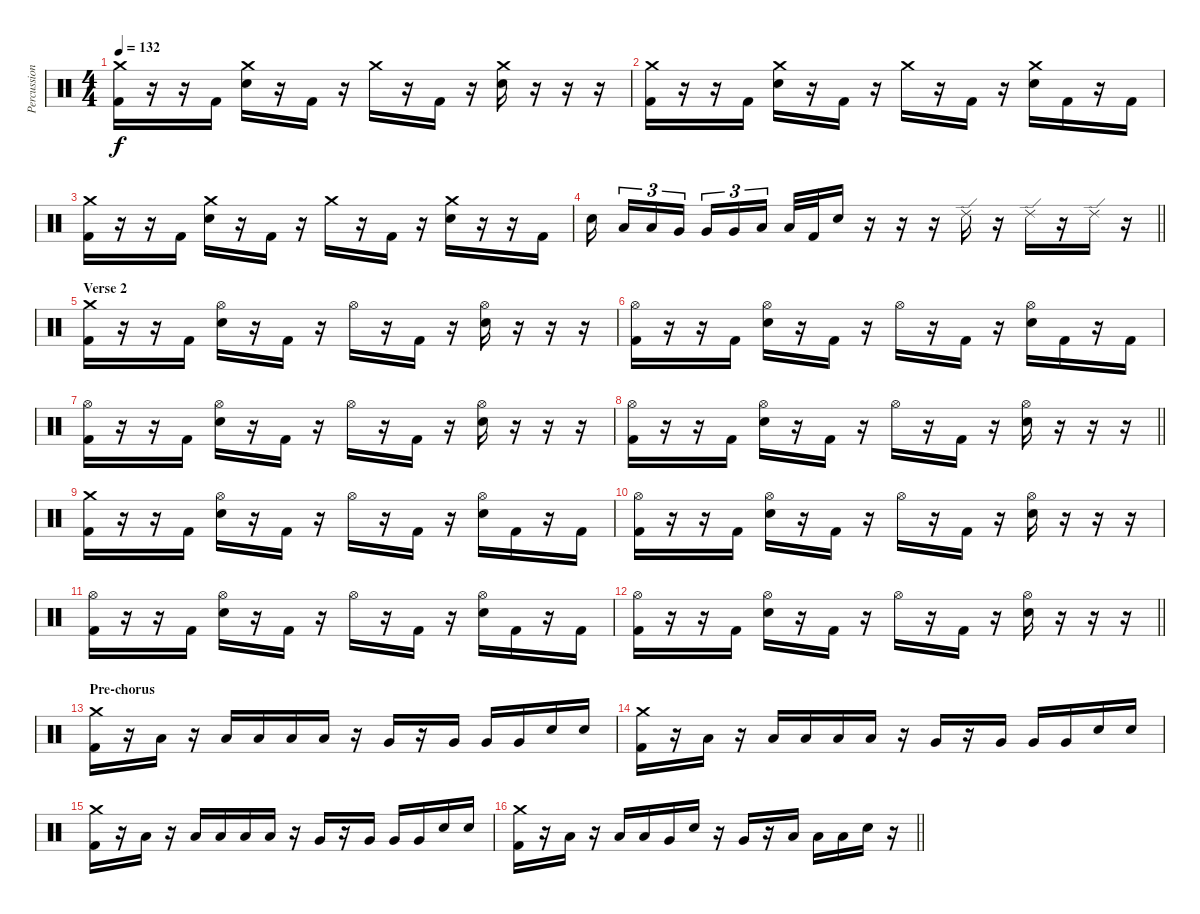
\track ("Percussion" "Percussion") {instrument percussion}
\staff {score}
\articulation defaults
\ts (4 4)
\tempo 132
\clef neutral
\ks c
("Crash medium (hit)" "Kick (hit) 2").16{dy f} r.16 r.16 "Kick (hit) 2".16 ("Crash medium (hit)" "Electric Snare (hit)").16 r.16 "Kick (hit) 2".16 r.16 "Crash medium (hit)".16 r.16 "Kick (hit) 2".16 r.16 ("Crash medium (hit)" "Electric Snare (hit)").16 r.16 r.16 r.16 |
("Crash medium (hit)" "Kick (hit) 2").16 r.16 r.16 "Kick (hit) 2".16 ("Crash medium (hit)" "Electric Snare (hit)").16 r.16 "Kick (hit) 2".16 r.16 "Crash medium (hit)".16 r.16 "Kick (hit) 2".16 r.16 ("Crash medium (hit)" "Electric Snare (hit)").16 "Kick (hit) 2".16 r.16 "Kick (hit) 2".16 |
("Crash medium (hit)" "Kick (hit) 2").16 r.16 r.16 "Kick (hit) 2".16 ("Crash medium (hit)" "Electric Snare (hit)").16 r.16 "Kick (hit) 2".16 r.16 "Crash medium (hit)".16 r.16 "Kick (hit) 2".16 r.16 ("Crash medium (hit)" "Electric Snare (hit)").16 r.16 r.16 "Kick (hit) 2".16 |
\barLineRight lightlight "Electric Snare (hit)".16{beam splitsecondary} "Low Tom (hit)".16{tu (3 2)} "Low Tom (hit)".16{tu (3 2)} "Very Low Tom (hit)".16{tu (3 2) beam splitsecondary} "Very Low Tom (hit)".16{tu (3 2)} "Very Low Tom (hit)".16{tu (3 2)} "Low Tom (hit)".16{tu (3 2) beam splitsecondary} "Low Tom (hit)".32 "Kick (hit) 2".32 "Electric Snare (hit)".16
r.16 r.16 r.16 "Ride (edge) 2".16 r.16 "Ride (edge) 2".16 r.16 "Ride (edge) 2".16 r.16 |
\section ("" "Verse 2")
("Crash medium (hit)" "Kick (hit) 2").16 r.16 r.16 "Kick (hit) 2".16 ("Hi-Hat (open)" "Electric Snare (hit)").16 r.16 "Kick (hit) 2".16 r.16 "Hi-Hat (open)".16 r.16 "Kick (hit) 2".16 r.16 ("Hi-Hat (open)" "Electric Snare (hit)").16 r.16 r.16 r.16 |
("Hi-Hat (open)" "Kick (hit) 2").16 r.16 r.16 "Kick (hit) 2".16 ("Hi-Hat (open)" "Electric Snare (hit)").16 r.16 "Kick (hit) 2".16 r.16 "Hi-Hat (open)".16 r.16 "Kick (hit) 2".16 r.16 ("Hi-Hat (open)" "Electric Snare (hit)").16 "Kick (hit) 2".16 r.16 "Kick (hit) 2".16 |
("Hi-Hat (open)" "Kick (hit) 2").16 r.16 r.16 "Kick (hit) 2".16 ("Hi-Hat (open)" "Electric Snare (hit)").16 r.16 "Kick (hit) 2".16 r.16 "Hi-Hat (open)".16 r.16 "Kick (hit) 2".16 r.16 ("Hi-Hat (open)" "Electric Snare (hit)").16 r.16 r.16 r.16 |
\barLineRight lightlight
("Hi-Hat (open)" "Kick (hit) 2").16 r.16 r.16 "Kick (hit) 2".16 ("Hi-Hat (open)" "Electric Snare (hit)").16 r.16 "Kick (hit) 2".16 r.16 "Hi-Hat (open)".16 r.16 "Kick (hit) 2".16 r.16 ("Hi-Hat (open)" "Electric Snare (hit)").16 r.16 r.16 r.16 |
("Crash medium (hit)" "Kick (hit) 2").16 r.16 r.16 "Kick (hit) 2".16 ("Hi-Hat (open)" "Electric Snare (hit)").16 r.16 "Kick (hit) 2".16 r.16 "Hi-Hat (open)".16 r.16 "Kick (hit) 2".16 r.16 ("Hi-Hat (open)" "Electric Snare (hit)").16 "Kick (hit) 2".16 r.16 "Kick (hit) 2".16 |
("Hi-Hat (open)" "Kick (hit) 2").16 r.16 r.16 "Kick (hit) 2".16 ("Hi-Hat (open)" "Electric Snare (hit)").16 r.16 "Kick (hit) 2".16 r.16 "Hi-Hat (open)".16 r.16 "Kick (hit) 2".16 r.16 ("Hi-Hat (open)" "Electric Snare (hit)").16 r.16 r.16 r.16 |
("Hi-Hat (open)" "Kick (hit) 2").16 r.16 r.16 "Kick (hit) 2".16 ("Hi-Hat (open)" "Electric Snare (hit)").16 r.16 "Kick (hit) 2".16 r.16 "Hi-Hat (open)".16 r.16 "Kick (hit) 2".16 r.16 ("Hi-Hat (open)" "Electric Snare (hit)").16 "Kick (hit) 2".16 r.16 "Kick (hit) 2".16 |
\barLineRight lightlight
("Hi-Hat (open)" "Kick (hit) 2").16 r.16 r.16 "Kick (hit) 2".16 ("Hi-Hat (open)" "Electric Snare (hit)").16 r.16 "Kick (hit) 2".16 r.16 "Hi-Hat (open)".16 r.16 "Kick (hit) 2".16 r.16 ("Hi-Hat (open)" "Electric Snare (hit)").16 r.16 r.16 r.16 |
\section ("" "Pre-chorus")
("Crash medium (hit)" "Kick (hit) 2").16 r.16 "Low Tom (hit)".16 r.16 "Low Tom (hit)".16 "Low Tom (hit)".16 "Low Tom (hit)".16 "Low Tom (hit)".16 r.16 "Very Low Tom (hit)".16 r.16 "Very Low Tom (hit)".16 "Very Low Tom (hit)".16 "Very Low Tom (hit)".16 "Electric Snare (hit)".16 "Electric Snare (hit)".16 |
("Crash medium (hit)" "Kick (hit) 2").16 r.16 "Low Tom (hit)".16 r.16 "Low Tom (hit)".16 "Low Tom (hit)".16 "Low Tom (hit)".16 "Low Tom (hit)".16 r.16 "Very Low Tom (hit)".16 r.16 "Very Low Tom (hit)".16 "Very Low Tom (hit)".16 "Very Low Tom (hit)".16 "Electric Snare (hit)".16 "Electric Snare (hit)".16 |
("Crash medium (hit)" "Kick (hit) 2").16 r.16 "Low Tom (hit)".16 r.16 "Low Tom (hit)".16 "Low Tom (hit)".16 "Low Tom (hit)".16 "Low Tom (hit)".16 r.16 "Very Low Tom (hit)".16 r.16 "Very Low Tom (hit)".16 "Very Low Tom (hit)".16 "Very Low Tom (hit)".16 "Electric Snare (hit)".16 "Electric Snare (hit)".16 |
\barLineRight lightlight
("Crash medium (hit)" "Kick (hit) 2").16 r.16 "Low Tom (hit)".16 r.16 "Low Tom (hit)".16 "Low Tom (hit)".16 "Very Low Tom (hit)".16 "Electric Snare (hit)".16 r.16 "Very Low Tom (hit)".16 r.16 "Low Tom (hit)".16 "Low Tom (hit)".16 "Low Tom (hit)".16 "Electric Snare (hit)".16 r.16
